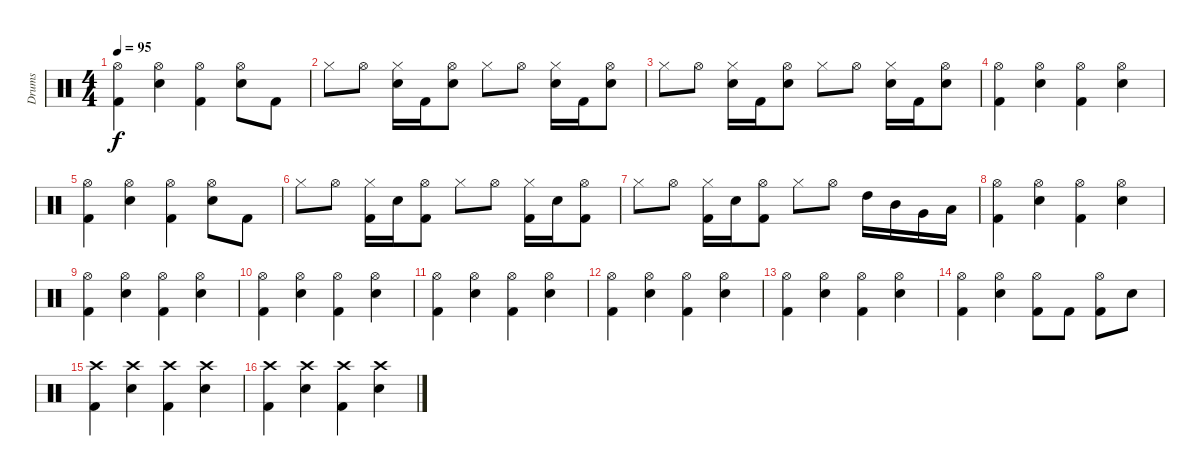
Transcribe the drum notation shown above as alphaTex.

\track ("Drums" "Drums") {instrument percussion}
\staff {score}
\articulation defaults
\ts (4 4)
\tempo 95
\clef neutral
\ks c
("Hi-Hat (open)" "Kick (hit) 2").4{dy f} ("Hi-Hat (open)" "Electric Snare (hit)").4 ("Hi-Hat (open)" "Kick (hit) 2").4 ("Hi-Hat (open)" "Electric Snare (hit)").8 "Kick (hit) 2".8 |
"Hi-Hat (closed)".8 "Hi-Hat (open)".8 ("Hi-Hat (closed)" "Electric Snare (hit)").16 "Kick (hit) 2".16 ("Hi-Hat (open)" "Electric Snare (hit)").8 "Hi-Hat (closed)".8 "Hi-Hat (open)".8 ("Hi-Hat (closed)" "Electric Snare (hit)").16 "Kick (hit) 2".16 ("Hi-Hat (open)" "Electric Snare (hit)").8 |
"Hi-Hat (closed)".8 "Hi-Hat (open)".8 ("Hi-Hat (closed)" "Electric Snare (hit)").16 "Kick (hit) 2".16 ("Hi-Hat (open)" "Electric Snare (hit)").8 "Hi-Hat (closed)".8 "Hi-Hat (open)".8 ("Hi-Hat (closed)" "Electric Snare (hit)").16 "Kick (hit) 2".16 ("Hi-Hat (open)" "Electric Snare (hit)").8 |
("Hi-Hat (open)" "Kick (hit) 2").4 ("Hi-Hat (open)" "Electric Snare (hit)").4 ("Hi-Hat (open)" "Kick (hit) 2").4 ("Hi-Hat (open)" "Electric Snare (hit)").4 |
("Hi-Hat (open)" "Kick (hit) 2").4 ("Hi-Hat (open)" "Electric Snare (hit)").4 ("Hi-Hat (open)" "Kick (hit) 2").4 ("Hi-Hat (open)" "Electric Snare (hit)").8 "Kick (hit) 2".8 |
"Hi-Hat (closed)".8 "Hi-Hat (open)".8 ("Hi-Hat (closed)" "Kick (hit) 2").16 "Electric Snare (hit)".16 ("Hi-Hat (open)" "Kick (hit) 2").8 "Hi-Hat (closed)".8 "Hi-Hat (open)".8 ("Hi-Hat (closed)" "Kick (hit) 2").16 "Electric Snare (hit)".16 ("Hi-Hat (open)" "Kick (hit) 2").8 |
"Hi-Hat (closed)".8 "Hi-Hat (open)".8 ("Hi-Hat (closed)" "Kick (hit) 2").16 "Electric Snare (hit)".16 ("Hi-Hat (open)" "Kick (hit) 2").8 "Hi-Hat (closed)".8 "Hi-Hat (open)".8 "High Tom (hit)".16 "Mid Tom (hit)".16 "Very Low Tom (hit)".16 "Low Floor Tom (hit)".16 |
("Hi-Hat (open)" "Kick (hit) 2").4 ("Hi-Hat (open)" "Electric Snare (hit)").4 ("Hi-Hat (open)" "Kick (hit) 2").4 ("Hi-Hat (open)" "Electric Snare (hit)").4 |
("Hi-Hat (open)" "Kick (hit) 2").4 ("Hi-Hat (open)" "Electric Snare (hit)").4 ("Hi-Hat (open)" "Kick (hit) 2").4 ("Hi-Hat (open)" "Electric Snare (hit)").4 |
("Hi-Hat (open)" "Kick (hit) 2").4 ("Hi-Hat (open)" "Electric Snare (hit)").4 ("Hi-Hat (open)" "Kick (hit) 2").4 ("Hi-Hat (open)" "Electric Snare (hit)").4 |
("Hi-Hat (open)" "Kick (hit) 2").4 ("Hi-Hat (open)" "Electric Snare (hit)").4 ("Hi-Hat (open)" "Kick (hit) 2").4 ("Hi-Hat (open)" "Electric Snare (hit)").4 |
("Hi-Hat (open)" "Kick (hit) 2").4 ("Hi-Hat (open)" "Electric Snare (hit)").4 ("Hi-Hat (open)" "Kick (hit) 2").4 ("Hi-Hat (open)" "Electric Snare (hit)").4 |
("Hi-Hat (open)" "Kick (hit) 2").4 ("Hi-Hat (open)" "Electric Snare (hit)").4 ("Hi-Hat (open)" "Kick (hit) 2").4 ("Hi-Hat (open)" "Electric Snare (hit)").4 |
("Hi-Hat (open)" "Kick (hit) 2").4 ("Hi-Hat (open)" "Electric Snare (hit)").4 ("Hi-Hat (open)" "Kick (hit) 2").8 "Kick (hit) 2".8 ("Hi-Hat (open)" "Kick (hit) 2").8 "Electric Snare (hit)".8 |
("Crash high (hit)" "Kick (hit) 2").4 ("Crash high (hit)" "Electric Snare (hit)").4 ("Crash high (hit)" "Kick (hit) 2").4 ("Crash high (hit)" "Electric Snare (hit)").4 |
("Crash high (hit)" "Kick (hit) 2").4 ("Crash high (hit)" "Electric Snare (hit)").4 ("Crash high (hit)" "Kick (hit) 2").4 ("Crash high (hit)" "Electric Snare (hit)").4
